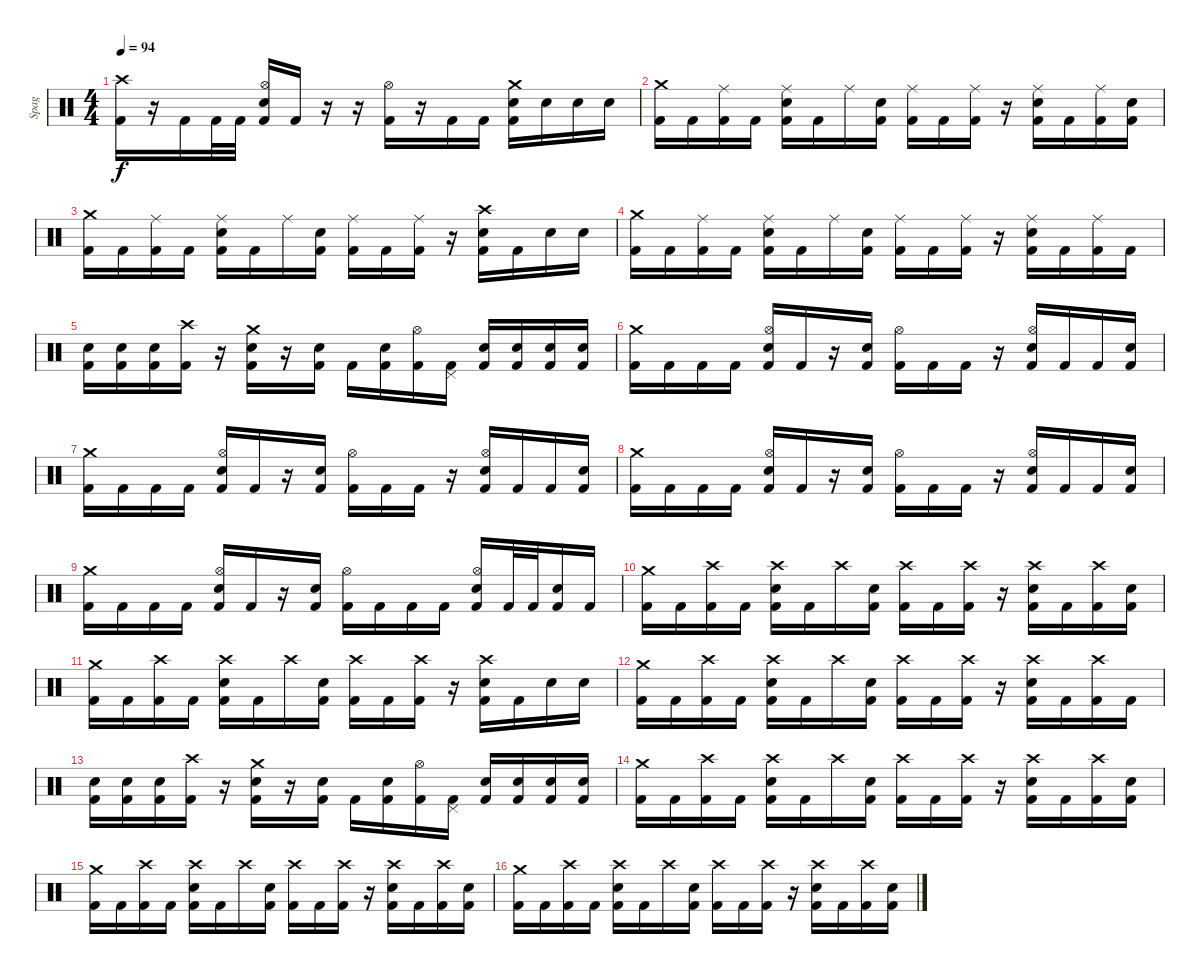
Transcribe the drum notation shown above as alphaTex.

\track ("Spag" "Spag") {instrument percussion}
\staff {score}
\articulation defaults
\ts (4 4)
\tempo 94
\clef neutral
\ks c
("Crash high (hit)" "Kick (hit) 2").16{dy f} r.16 "Kick (hit) 2".16 "Kick (hit) 2".32 "Kick (hit) 2".32 ("Hi-Hat (open)" "Electric Snare (hit)" "Kick (hit) 2").16 "Kick (hit) 2".16 r.16 r.16 ("Hi-Hat (open)" "Kick (hit) 2").16 r.16 "Kick (hit) 2".16 "Kick (hit) 2".16 ("Crash medium (hit)" "Electric Snare (hit)" "Kick (hit) 2").16 "Electric Snare (hit)".16 "Electric Snare (hit)".16 "Electric Snare (hit)".16 |
("Crash medium (hit)" "Kick (hit) 2").16 "Kick (hit) 2".16 ("Ride (middle)" "Kick (hit) 2").16 "Kick (hit) 2".16 ("Ride (middle)" "Electric Snare (hit)" "Kick (hit) 2").16 "Kick (hit) 2".16 "Ride (middle)".16 ("Electric Snare (hit)" "Kick (hit) 2").16 ("Ride (middle)" "Kick (hit) 2").16 "Kick (hit) 2".16 ("Ride (middle)" "Kick (hit) 2").16 r.16 ("Ride (middle)" "Electric Snare (hit)" "Kick (hit) 2").16 "Kick (hit) 2".16 ("Ride (middle)" "Kick (hit) 2").16 ("Electric Snare (hit)" "Kick (hit) 2").16 |
("Crash medium (hit)" "Kick (hit) 2").16 "Kick (hit) 2".16 ("Ride (middle)" "Kick (hit) 2").16 "Kick (hit) 2".16 ("Ride (middle)" "Electric Snare (hit)" "Kick (hit) 2").16 "Kick (hit) 2".16 "Ride (middle)".16 ("Electric Snare (hit)" "Kick (hit) 2").16 ("Ride (middle)" "Kick (hit) 2").16 "Kick (hit) 2".16 ("Ride (middle)" "Kick (hit) 2").16 r.16 ("Crash high (hit)" "Electric Snare (hit)" "Kick (hit) 2").16 "Kick (hit) 2".16 "Electric Snare (hit)".16 "Electric Snare (hit)".16 |
("Crash medium (hit)" "Kick (hit) 2").16 "Kick (hit) 2".16 ("Ride (middle)" "Kick (hit) 2").16 "Kick (hit) 2".16 ("Ride (middle)" "Electric Snare (hit)" "Kick (hit) 2").16 "Kick (hit) 2".16 "Ride (middle)".16 ("Electric Snare (hit)" "Kick (hit) 2").16 ("Ride (middle)" "Kick (hit) 2").16 "Kick (hit) 2".16 ("Ride (middle)" "Kick (hit) 2").16 r.16 ("Ride (middle)" "Electric Snare (hit)" "Kick (hit) 2").16 "Kick (hit) 2".16 ("Ride (middle)" "Kick (hit) 2").16 "Kick (hit) 2".16 |
("Electric Snare (hit)" "Kick (hit) 2").16 ("Electric Snare (hit)" "Kick (hit) 2").16 ("Electric Snare (hit)" "Kick (hit) 2").16 ("Crash high (hit)" "Kick (hit) 2").16 r.16 ("Crash medium (hit)" "Electric Snare (hit)" "Kick (hit) 2").16 r.16 ("Electric Snare (hit)" "Kick (hit) 2").16 "Kick (hit) 2".16 ("Electric Snare (hit)" "Kick (hit) 2").16 ("Hi-Hat (open)" "Kick (hit) 2").16 ("Pedal Hi-Hat (hit)" "Kick (hit) 2").16 ("Electric Snare (hit)" "Kick (hit) 2").16 ("Electric Snare (hit)" "Kick (hit) 2").16 ("Electric Snare (hit)" "Kick (hit) 2").16 ("Electric Snare (hit)" "Kick (hit) 2").16 |
("Crash medium (hit)" "Kick (hit) 2").16 "Kick (hit) 2".16 "Kick (hit) 2".16 "Kick (hit) 2".16 ("Hi-Hat (open)" "Electric Snare (hit)" "Kick (hit) 2").16 "Kick (hit) 2".16 r.16 ("Electric Snare (hit)" "Kick (hit) 2").16 ("Hi-Hat (open)" "Kick (hit) 2").16 "Kick (hit) 2".16 "Kick (hit) 2".16 r.16 ("Hi-Hat (open)" "Electric Snare (hit)" "Kick (hit) 2").16 "Kick (hit) 2".16 "Kick (hit) 2".16 ("Electric Snare (hit)" "Kick (hit) 2").16 |
("Crash medium (hit)" "Kick (hit) 2").16 "Kick (hit) 2".16 "Kick (hit) 2".16 "Kick (hit) 2".16 ("Hi-Hat (open)" "Electric Snare (hit)" "Kick (hit) 2").16 "Kick (hit) 2".16 r.16 ("Electric Snare (hit)" "Kick (hit) 2").16 ("Hi-Hat (open)" "Kick (hit) 2").16 "Kick (hit) 2".16 "Kick (hit) 2".16 r.16 ("Hi-Hat (open)" "Electric Snare (hit)" "Kick (hit) 2").16 "Kick (hit) 2".16 "Kick (hit) 2".16 ("Electric Snare (hit)" "Kick (hit) 2").16 |
("Crash medium (hit)" "Kick (hit) 2").16 "Kick (hit) 2".16 "Kick (hit) 2".16 "Kick (hit) 2".16 ("Hi-Hat (open)" "Electric Snare (hit)" "Kick (hit) 2").16 "Kick (hit) 2".16 r.16 ("Electric Snare (hit)" "Kick (hit) 2").16 ("Hi-Hat (open)" "Kick (hit) 2").16 "Kick (hit) 2".16 "Kick (hit) 2".16 r.16 ("Hi-Hat (open)" "Electric Snare (hit)" "Kick (hit) 2").16 "Kick (hit) 2".16 "Kick (hit) 2".16 ("Electric Snare (hit)" "Kick (hit) 2").16 |
("Crash medium (hit)" "Kick (hit) 2").16 "Kick (hit) 2".16 "Kick (hit) 2".16 "Kick (hit) 2".16 ("Hi-Hat (open)" "Electric Snare (hit)" "Kick (hit) 2").16 "Kick (hit) 2".16 r.16 ("Electric Snare (hit)" "Kick (hit) 2").16 ("Hi-Hat (open)" "Kick (hit) 2").16 "Kick (hit) 2".16 "Kick (hit) 2".16 "Kick (hit) 2".16 ("Hi-Hat (open)" "Electric Snare (hit)" "Kick (hit) 2").16 "Kick (hit) 2".32 "Kick (hit) 2".32 ("Electric Snare (hit)" "Kick (hit) 2").16 "Kick (hit) 2".16 |
("Crash medium (hit)" "Kick (hit) 2").16 "Kick (hit) 2".16 ("Crash high (hit)" "Kick (hit) 2").16 "Kick (hit) 2".16 ("Crash high (hit)" "Electric Snare (hit)" "Kick (hit) 2").16 "Kick (hit) 2".16 "Crash high (hit)".16 ("Electric Snare (hit)" "Kick (hit) 2").16 ("Crash high (hit)" "Kick (hit) 2").16 "Kick (hit) 2".16 ("Crash high (hit)" "Kick (hit) 2").16 r.16 ("Crash high (hit)" "Electric Snare (hit)" "Kick (hit) 2").16 "Kick (hit) 2".16 ("Crash high (hit)" "Kick (hit) 2").16 ("Electric Snare (hit)" "Kick (hit) 2").16 |
("Crash medium (hit)" "Kick (hit) 2").16 "Kick (hit) 2".16 ("Crash high (hit)" "Kick (hit) 2").16 "Kick (hit) 2".16 ("Crash high (hit)" "Electric Snare (hit)" "Kick (hit) 2").16 "Kick (hit) 2".16 "Crash high (hit)".16 ("Electric Snare (hit)" "Kick (hit) 2").16 ("Crash high (hit)" "Kick (hit) 2").16 "Kick (hit) 2".16 ("Crash high (hit)" "Kick (hit) 2").16 r.16 ("Crash high (hit)" "Electric Snare (hit)" "Kick (hit) 2").16 "Kick (hit) 2".16 "Electric Snare (hit)".16 "Electric Snare (hit)".16 |
("Crash medium (hit)" "Kick (hit) 2").16 "Kick (hit) 2".16 ("Crash high (hit)" "Kick (hit) 2").16 "Kick (hit) 2".16 ("Crash high (hit)" "Electric Snare (hit)" "Kick (hit) 2").16 "Kick (hit) 2".16 "Crash high (hit)".16 ("Electric Snare (hit)" "Kick (hit) 2").16 ("Crash high (hit)" "Kick (hit) 2").16 "Kick (hit) 2".16 ("Crash high (hit)" "Kick (hit) 2").16 r.16 ("Crash high (hit)" "Electric Snare (hit)" "Kick (hit) 2").16 "Kick (hit) 2".16 ("Crash high (hit)" "Kick (hit) 2").16 "Kick (hit) 2".16 |
("Electric Snare (hit)" "Kick (hit) 2").16 ("Electric Snare (hit)" "Kick (hit) 2").16 ("Electric Snare (hit)" "Kick (hit) 2").16 ("Crash high (hit)" "Kick (hit) 2").16 r.16 ("Crash medium (hit)" "Electric Snare (hit)" "Kick (hit) 2").16 r.16 ("Electric Snare (hit)" "Kick (hit) 2").16 "Kick (hit) 2".16 ("Electric Snare (hit)" "Kick (hit) 2").16 ("Hi-Hat (open)" "Kick (hit) 2").16 ("Pedal Hi-Hat (hit)" "Kick (hit) 2").16 ("Electric Snare (hit)" "Kick (hit) 2").16 ("Electric Snare (hit)" "Kick (hit) 2").16 ("Electric Snare (hit)" "Kick (hit) 2").16 ("Electric Snare (hit)" "Kick (hit) 2").16 |
("Crash medium (hit)" "Kick (hit) 2").16 "Kick (hit) 2".16 ("Crash high (hit)" "Kick (hit) 2").16 "Kick (hit) 2".16 ("Crash high (hit)" "Electric Snare (hit)" "Kick (hit) 2").16 "Kick (hit) 2".16 "Crash high (hit)".16 ("Electric Snare (hit)" "Kick (hit) 2").16 ("Crash high (hit)" "Kick (hit) 2").16 "Kick (hit) 2".16 ("Crash high (hit)" "Kick (hit) 2").16 r.16 ("Crash high (hit)" "Electric Snare (hit)" "Kick (hit) 2").16 "Kick (hit) 2".16 ("Crash high (hit)" "Kick (hit) 2").16 ("Electric Snare (hit)" "Kick (hit) 2").16 |
("Crash medium (hit)" "Kick (hit) 2").16 "Kick (hit) 2".16 ("Crash high (hit)" "Kick (hit) 2").16 "Kick (hit) 2".16 ("Crash high (hit)" "Electric Snare (hit)" "Kick (hit) 2").16 "Kick (hit) 2".16 "Crash high (hit)".16 ("Electric Snare (hit)" "Kick (hit) 2").16 ("Crash high (hit)" "Kick (hit) 2").16 "Kick (hit) 2".16 ("Crash high (hit)" "Kick (hit) 2").16 r.16 ("Crash high (hit)" "Electric Snare (hit)" "Kick (hit) 2").16 "Kick (hit) 2".16 ("Crash high (hit)" "Kick (hit) 2").16 ("Electric Snare (hit)" "Kick (hit) 2").16 |
("Crash medium (hit)" "Kick (hit) 2").16 "Kick (hit) 2".16 ("Crash high (hit)" "Kick (hit) 2").16 "Kick (hit) 2".16 ("Crash high (hit)" "Electric Snare (hit)" "Kick (hit) 2").16 "Kick (hit) 2".16 "Crash high (hit)".16 ("Electric Snare (hit)" "Kick (hit) 2").16 ("Crash high (hit)" "Kick (hit) 2").16 "Kick (hit) 2".16 ("Crash high (hit)" "Kick (hit) 2").16 r.16 ("Crash high (hit)" "Electric Snare (hit)" "Kick (hit) 2").16 "Kick (hit) 2".16 ("Crash high (hit)" "Kick (hit) 2").16 ("Electric Snare (hit)" "Kick (hit) 2").16
